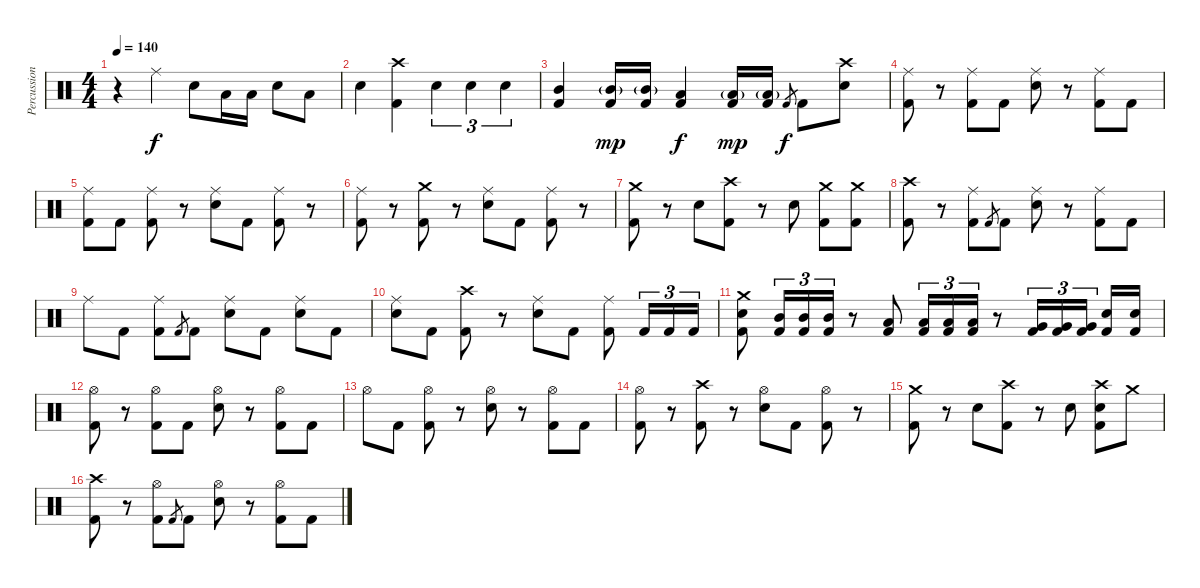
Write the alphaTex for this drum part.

\track ("Percussion" "Percussion") {instrument percussion}
\staff {score}
\articulation defaults
\ts (4 4)
\tempo 140
\clef neutral
\ks c
r.4{dy f} "Ride (middle)".4 "Snare (hit) 2".8 "Low Tom (hit)".16 "Low Tom (hit)".16 "Snare (hit) 2".8 "Low Tom (hit)".8 |
"Snare (hit) 2".4 ("Crash high (hit)" "Kick (hit) 2").4 "Snare (hit) 2".4{tu (3 2)} "Snare (hit) 2".4{tu (3 2)} "Snare (hit) 2".4{tu (3 2)} |
("Mid Tom (hit)" "Kick (hit) 2").4 ("Mid Tom (hit)"{g} "Kick (hit) 2").16{dy mp} ("Mid Tom (hit)"{g} "Kick (hit) 2").16 ("Low Tom (hit)" "Kick (hit) 2").4{dy f} ("Low Tom (hit)"{g} "Kick (hit) 2").16{dy mp} ("Low Tom (hit)"{g} "Kick (hit) 2").16 "Kick (hit) 2".8{gr dy f} "Kick (hit) 2".8 ("Crash high (hit)" "Snare (hit) 2").8 |
("Ride (middle)" "Kick (hit) 2").8 r.8 ("Ride (middle)" "Kick (hit) 2").8 "Kick (hit) 2".8 ("Ride (middle)" "Snare (hit) 2").8 r.8 ("Ride (middle)" "Kick (hit) 2").8 "Kick (hit) 2".8 |
("Ride (middle)" "Kick (hit) 2").8 "Kick (hit) 2".8 ("Ride (middle)" "Kick (hit) 2").8 r.8 ("Ride (middle)" "Snare (hit) 2").8 "Kick (hit) 2".8 ("Ride (middle)" "Kick (hit) 2").8 r.8 |
("Ride (middle)" "Kick (hit) 2").8 r.8 ("Crash medium (hit)" "Kick (hit) 2").8 r.8 ("Ride (middle)" "Snare (hit) 2").8 "Kick (hit) 2".8 ("Ride (middle)" "Kick (hit) 2").8 r.8 |
("Crash medium (hit)" "Kick (hit) 2").8 r.8 "Snare (hit) 2".8 ("Crash high (hit)" "Kick (hit) 2").8 r.8 "Snare (hit) 2".8 ("Crash medium (hit)" "Kick (hit) 2").8 ("Crash medium (hit)" "Kick (hit) 2").8 |
("Crash high (hit)" "Kick (hit) 2").8 r.8 ("Ride (middle)" "Kick (hit) 2").8 "Kick (hit) 2".8{gr} "Kick (hit) 2".8 ("Ride (middle)" "Snare (hit) 2").8 r.8 ("Ride (middle)" "Kick (hit) 2").8 "Kick (hit) 2".8 |
"Ride (middle)".8 "Kick (hit) 2".8 ("Ride (middle)" "Kick (hit) 2").8 "Kick (hit) 2".8{gr} "Kick (hit) 2".8 ("Ride (middle)" "Snare (hit) 2").8 "Kick (hit) 2".8 ("Ride (middle)" "Snare (hit) 2").8 "Kick (hit) 2".8 |
("Ride (middle)" "Snare (hit) 2").8 "Kick (hit) 2".8 ("Crash high (hit)" "Kick (hit) 2").8 r.8 ("Ride (middle)" "Snare (hit) 2").8 "Kick (hit) 2".8 ("Ride (middle)" "Kick (hit) 2").8 "Kick (hit) 2".16{tu (3 2)} "Kick (hit) 2".16{tu (3 2)} "Kick (hit) 2".16{tu (3 2)} |
("Crash medium (hit)" "Snare (hit) 2" "Kick (hit) 2").8 ("Mid Tom (hit)" "Kick (hit) 2").16{tu (3 2)} ("Mid Tom (hit)" "Kick (hit) 2").16{tu (3 2)} ("Mid Tom (hit)" "Kick (hit) 2").16{tu (3 2)} r.8 ("Low Tom (hit)" "Kick (hit) 2").8 ("Low Tom (hit)" "Kick (hit) 2").16{tu (3 2)} ("Low Tom (hit)" "Kick (hit) 2").16{tu (3 2)} ("Low Tom (hit)" "Kick (hit) 2").16{tu (3 2)} r.8 ("Very Low Tom (hit)" "Kick (hit) 2").16{tu (3 2)} ("Very Low Tom (hit)" "Kick (hit) 2").16{tu (3 2)} ("Very Low Tom (hit)" "Kick (hit) 2").16{tu (3 2)} ("Snare (hit) 2" "Kick (hit) 2").16 ("Snare (hit) 2" "Kick (hit) 2").16 |
("Hi-Hat (open)" "Kick (hit) 2").8 r.8 ("Hi-Hat (open)" "Kick (hit) 2").8 "Kick (hit) 2".8 ("Hi-Hat (open)" "Snare (hit) 2").8 r.8 ("Hi-Hat (open)" "Kick (hit) 2").8 "Kick (hit) 2".8 |
"Hi-Hat (open)".8 "Kick (hit) 2".8 ("Hi-Hat (open)" "Kick (hit) 2").8 r.8 ("Hi-Hat (open)" "Snare (hit) 2").8 r.8 ("Hi-Hat (open)" "Kick (hit) 2").8 "Kick (hit) 2".8 |
("Hi-Hat (open)" "Kick (hit) 2").8 r.8 ("Crash high (hit)" "Kick (hit) 2").8 r.8 ("Hi-Hat (open)" "Snare (hit) 2").8 "Kick (hit) 2".8 ("Hi-Hat (open)" "Kick (hit) 2").8 r.8 |
("Crash medium (hit)" "Kick (hit) 2").8 r.8 "Snare (hit) 2".8 ("Crash high (hit)" "Kick (hit) 2").8 r.8 "Snare (hit) 2".8 ("Crash high (hit)" "Snare (hit) 2" "Kick (hit) 2").8 "Crash medium (hit)".8 |
("Crash high (hit)" "Kick (hit) 2").8 r.8 ("Hi-Hat (open)" "Kick (hit) 2").8 "Kick (hit) 2".8{gr} "Kick (hit) 2".8 ("Hi-Hat (open)" "Snare (hit) 2").8 r.8 ("Hi-Hat (open)" "Kick (hit) 2").8 "Kick (hit) 2".8
